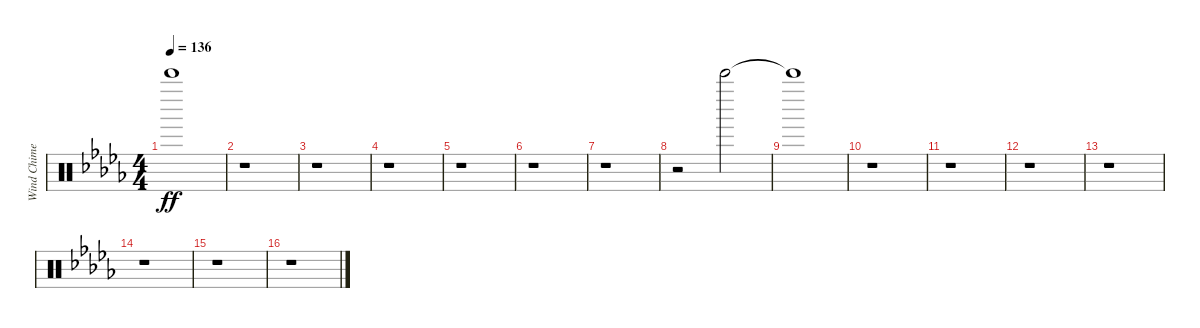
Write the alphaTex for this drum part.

\track ("Wind Chimes" "Wind Chime") {instrument percussion}
\staff {score}
\articulation defaults
\ts (4 4)
\tempo 136
\clef neutral
\ks db "Bell Tree (hit)"{t}.1{dy ff}
|
r.1 |
r.1 |
r.1 |
r.1 |
r.1 |
r.1 |
r.2 "Bell Tree (hit)".2 |
"Bell Tree (hit)"{t}.1 |
r.1 |
r.1 |
r.1 |
r.1 |
r.1 |
r.1 |
r.1
